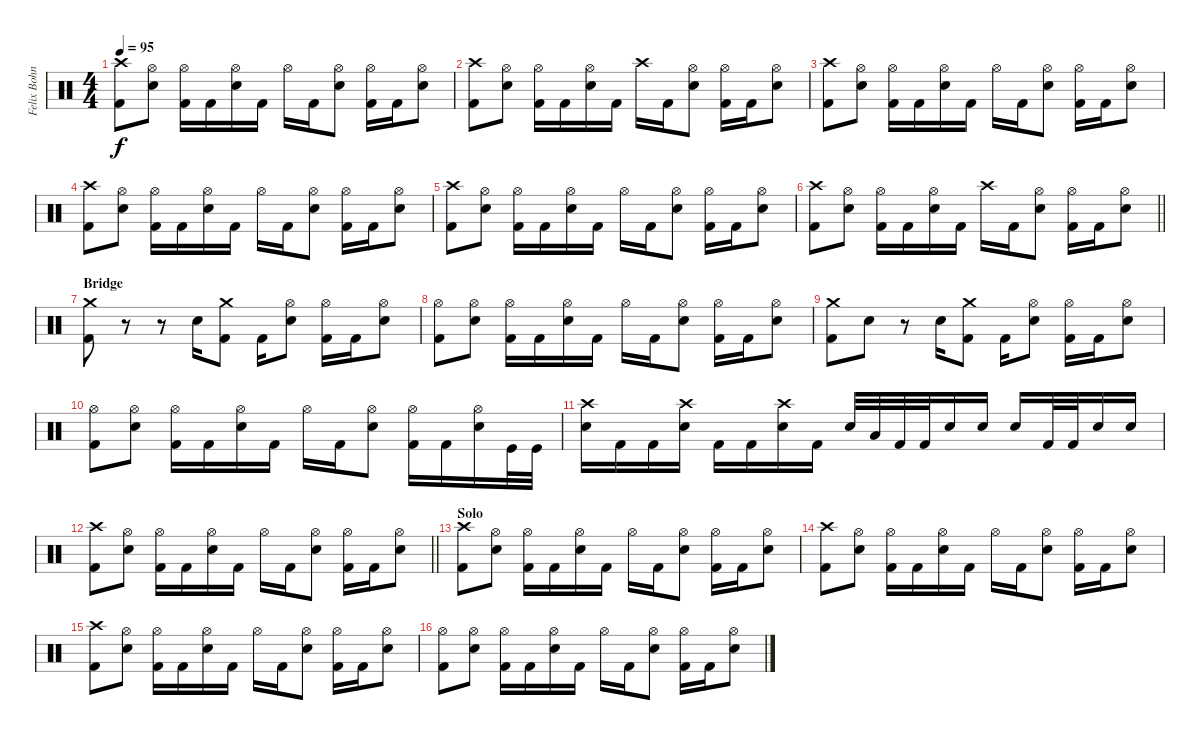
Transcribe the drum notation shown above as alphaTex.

\track ("Felix Bohnke" "Felix Bohn") {instrument percussion}
\staff {score}
\articulation defaults
\ts (4 4)
\tempo 95
\clef neutral
\ks c
("Crash high (hit)" "Kick (hit) 2").8{dy f} ("Hi-Hat (open)" "Snare (hit) 2").8 ("Hi-Hat (open)" "Kick (hit) 2").16 "Kick (hit) 2".16 ("Hi-Hat (open)" "Snare (hit) 2").16 "Kick (hit) 2".16 "Hi-Hat (open)".16 "Kick (hit) 2".16 ("Hi-Hat (open)" "Snare (hit) 2").8 ("Hi-Hat (open)" "Kick (hit) 2").16 "Kick (hit) 2".16 ("Hi-Hat (open)" "Snare (hit) 2").8 |
("Crash high (hit)" "Kick (hit) 2").8 ("Hi-Hat (open)" "Snare (hit) 2").8 ("Hi-Hat (open)" "Kick (hit) 2").16 "Kick (hit) 2".16 ("Hi-Hat (open)" "Snare (hit) 2").16 "Kick (hit) 2".16 "Crash high (hit)".16 "Kick (hit) 2".16 ("Hi-Hat (open)" "Snare (hit) 2").8 ("Hi-Hat (open)" "Kick (hit) 2").16 "Kick (hit) 2".16 ("Hi-Hat (open)" "Snare (hit) 2").8 |
("Crash high (hit)" "Kick (hit) 2").8 ("Hi-Hat (open)" "Snare (hit) 2").8 ("Hi-Hat (open)" "Kick (hit) 2").16 "Kick (hit) 2".16 ("Hi-Hat (open)" "Snare (hit) 2").16 "Kick (hit) 2".16 "Hi-Hat (open)".16 "Kick (hit) 2".16 ("Hi-Hat (open)" "Snare (hit) 2").8 ("Hi-Hat (open)" "Kick (hit) 2").16 "Kick (hit) 2".16 ("Hi-Hat (open)" "Snare (hit) 2").8 |
("Crash high (hit)" "Kick (hit) 2").8 ("Hi-Hat (open)" "Snare (hit) 2").8 ("Hi-Hat (open)" "Kick (hit) 2").16 "Kick (hit) 2".16 ("Hi-Hat (open)" "Snare (hit) 2").16 "Kick (hit) 2".16 "Hi-Hat (open)".16 "Kick (hit) 2".16 ("Hi-Hat (open)" "Snare (hit) 2").8 ("Hi-Hat (open)" "Kick (hit) 2").16 "Kick (hit) 2".16 ("Hi-Hat (open)" "Snare (hit) 2").8 |
("Crash high (hit)" "Kick (hit) 2").8 ("Hi-Hat (open)" "Snare (hit) 2").8 ("Hi-Hat (open)" "Kick (hit) 2").16 "Kick (hit) 2".16 ("Hi-Hat (open)" "Snare (hit) 2").16 "Kick (hit) 2".16 "Hi-Hat (open)".16 "Kick (hit) 2".16 ("Hi-Hat (open)" "Snare (hit) 2").8 ("Hi-Hat (open)" "Kick (hit) 2").16 "Kick (hit) 2".16 ("Hi-Hat (open)" "Snare (hit) 2").8 |
\barLineRight lightlight
("Crash high (hit)" "Kick (hit) 2").8 ("Hi-Hat (open)" "Snare (hit) 2").8 ("Hi-Hat (open)" "Kick (hit) 2").16 "Kick (hit) 2".16 ("Hi-Hat (open)" "Snare (hit) 2").16 "Kick (hit) 2".16 "Crash high (hit)".16 "Kick (hit) 2".16 ("Hi-Hat (open)" "Snare (hit) 2").8 ("Hi-Hat (open)" "Kick (hit) 2").16 "Kick (hit) 2".16 ("Hi-Hat (open)" "Snare (hit) 2").8 |
\section ("" "Bridge")
("Kick (hit) 2" "Crash medium (hit)").8 r.8 r.8 "Snare (hit) 2".16 ("Kick (hit) 2" "Crash medium (hit)").8 "Kick (hit) 2".16 ("Snare (hit) 2" "Hi-Hat (open)").8 ("Kick (hit) 2" "Hi-Hat (open)").16 "Kick (hit) 2".16 ("Snare (hit) 2" "Hi-Hat (open)").8 |
("Hi-Hat (open)" "Kick (hit) 2").8 ("Hi-Hat (open)" "Snare (hit) 2").8 ("Hi-Hat (open)" "Kick (hit) 2").16 "Kick (hit) 2".16 ("Hi-Hat (open)" "Snare (hit) 2").16 "Kick (hit) 2".16 "Hi-Hat (open)".16 "Kick (hit) 2".16 ("Hi-Hat (open)" "Snare (hit) 2").8 ("Hi-Hat (open)" "Kick (hit) 2").16 "Kick (hit) 2".16 ("Hi-Hat (open)" "Snare (hit) 2").8 |
("Kick (hit) 2" "Crash medium (hit)").8 "Snare (hit) 2".8 r.8 "Snare (hit) 2".16 ("Kick (hit) 2" "Crash medium (hit)").8 "Kick (hit) 2".16 ("Snare (hit) 2" "Hi-Hat (open)").8 ("Kick (hit) 2" "Hi-Hat (open)").16 "Kick (hit) 2".16 ("Snare (hit) 2" "Hi-Hat (open)").8 |
("Hi-Hat (open)" "Kick (hit) 2").8 ("Hi-Hat (open)" "Snare (hit) 2").8 ("Hi-Hat (open)" "Kick (hit) 2").16 "Kick (hit) 2".16 ("Hi-Hat (open)" "Snare (hit) 2").16 "Kick (hit) 2".16 "Hi-Hat (open)".16 "Kick (hit) 2".16 ("Hi-Hat (open)" "Snare (hit) 2").8 ("Hi-Hat (open)" "Kick (hit) 2").16 "Kick (hit) 2".16 ("Hi-Hat (open)" "Snare (hit) 2").16 "Kick (hit)".32 "Kick (hit)".32 |
("Crash high (hit)" "Snare (hit) 2").16 "Kick (hit) 2".16 "Kick (hit) 2".16 ("Crash high (hit)" "Snare (hit) 2").16 "Kick (hit) 2".16 "Kick (hit) 2".16 ("Crash high (hit)" "Snare (hit) 2").16 "Kick (hit) 2".16 "Snare (hit) 2".32 "Low Tom (hit)".32 "Kick (hit) 2".32 "Kick (hit) 2".32 "Snare (hit) 2".16 "Snare (hit) 2".16 "Snare (hit) 2".16 "Kick (hit) 2".32 "Kick (hit) 2".32 "Snare (hit) 2".16 "Snare (hit) 2".16 |
\barLineRight lightlight
("Crash high (hit)" "Kick (hit) 2").8 ("Hi-Hat (open)" "Snare (hit) 2").8 ("Hi-Hat (open)" "Kick (hit) 2").16 "Kick (hit) 2".16 ("Hi-Hat (open)" "Snare (hit) 2").16 "Kick (hit) 2".16 "Hi-Hat (open)".16 "Kick (hit) 2".16 ("Hi-Hat (open)" "Snare (hit) 2").8 ("Hi-Hat (open)" "Kick (hit) 2").16 "Kick (hit) 2".16 ("Hi-Hat (open)" "Snare (hit) 2").8 |
\section ("" "Solo")
("Crash high (hit)" "Kick (hit) 2").8 ("Hi-Hat (open)" "Snare (hit) 2").8 ("Hi-Hat (open)" "Kick (hit) 2").16 "Kick (hit) 2".16 ("Hi-Hat (open)" "Snare (hit) 2").16 "Kick (hit) 2".16 "Hi-Hat (open)".16 "Kick (hit) 2".16 ("Hi-Hat (open)" "Snare (hit) 2").8 ("Hi-Hat (open)" "Kick (hit) 2").16 "Kick (hit) 2".16 ("Hi-Hat (open)" "Snare (hit) 2").8 |
("Crash high (hit)" "Kick (hit) 2").8 ("Hi-Hat (open)" "Snare (hit) 2").8 ("Hi-Hat (open)" "Kick (hit) 2").16 "Kick (hit) 2".16 ("Hi-Hat (open)" "Snare (hit) 2").16 "Kick (hit) 2".16 "Hi-Hat (open)".16 "Kick (hit) 2".16 ("Hi-Hat (open)" "Snare (hit) 2").8 ("Hi-Hat (open)" "Kick (hit) 2").16 "Kick (hit) 2".16 ("Hi-Hat (open)" "Snare (hit) 2").8 |
("Crash high (hit)" "Kick (hit) 2").8 ("Hi-Hat (open)" "Snare (hit) 2").8 ("Hi-Hat (open)" "Kick (hit) 2").16 "Kick (hit) 2".16 ("Hi-Hat (open)" "Snare (hit) 2").16 "Kick (hit) 2".16 "Hi-Hat (open)".16 "Kick (hit) 2".16 ("Hi-Hat (open)" "Snare (hit) 2").8 ("Hi-Hat (open)" "Kick (hit) 2").16 "Kick (hit) 2".16 ("Hi-Hat (open)" "Snare (hit) 2").8 |
("Hi-Hat (open)" "Kick (hit) 2").8 ("Hi-Hat (open)" "Snare (hit) 2").8 ("Hi-Hat (open)" "Kick (hit) 2").16 "Kick (hit) 2".16 ("Hi-Hat (open)" "Snare (hit) 2").16 "Kick (hit) 2".16 "Hi-Hat (open)".16 "Kick (hit) 2".16 ("Hi-Hat (open)" "Snare (hit) 2").8 ("Hi-Hat (open)" "Kick (hit) 2").16 "Kick (hit) 2".16 ("Hi-Hat (open)" "Snare (hit) 2").8
